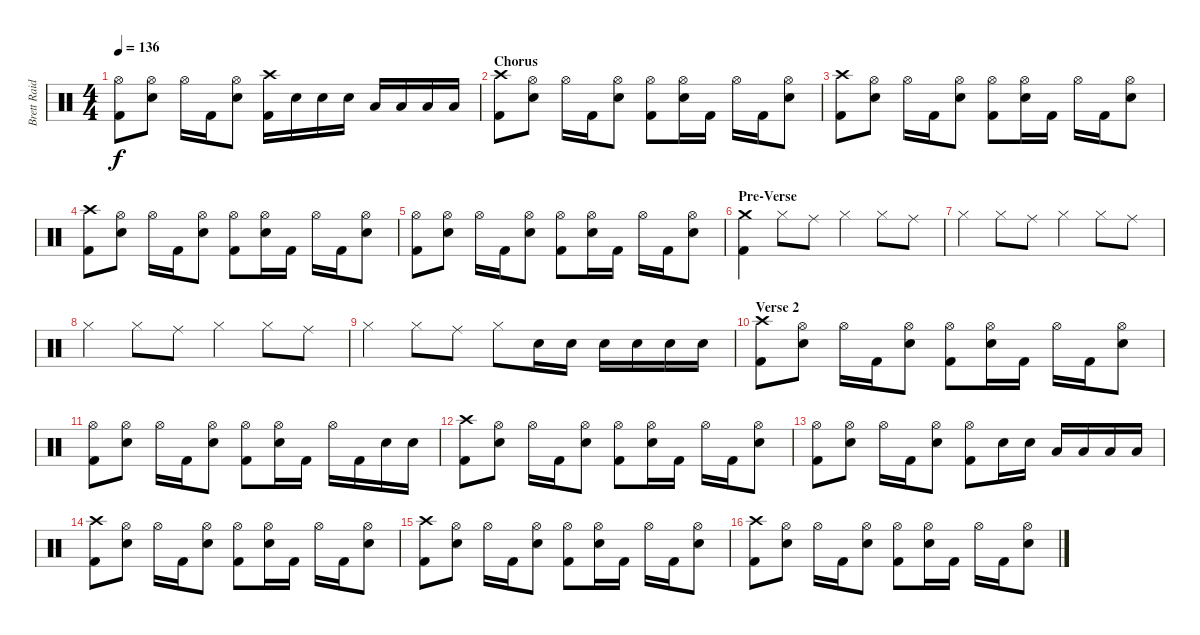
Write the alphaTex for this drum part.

\track ("Brett Raid (Drums)" "Brett Raid") {instrument percussion}
\staff {score}
\articulation defaults
\ts (4 4)
\tempo 136
\clef neutral
\ks c
("Hi-Hat (open)" "Kick (hit) 2").8{dy f} ("Hi-Hat (open)" "Electric Snare (hit)").8 "Hi-Hat (open)".16 "Kick (hit) 2".16 ("Hi-Hat (open)" "Electric Snare (hit)").8 ("Crash high (hit)" "Kick (hit) 2").16 "Electric Snare (hit)".16 "Electric Snare (hit)".16 "Electric Snare (hit)".16 "Low Tom (hit)".16 "Low Tom (hit)".16 "Low Floor Tom (hit)".16 "Low Floor Tom (hit)".16 |
\section ("" "Chorus")
("Crash high (hit)" "Kick (hit) 2").8 ("Hi-Hat (open)" "Electric Snare (hit)").8 "Hi-Hat (open)".16 "Kick (hit) 2".16 ("Hi-Hat (open)" "Electric Snare (hit)").8 ("Hi-Hat (open)" "Kick (hit) 2").8 ("Hi-Hat (open)" "Electric Snare (hit)").16 "Kick (hit) 2".16 "Hi-Hat (open)".16 "Kick (hit) 2".16 ("Hi-Hat (open)" "Electric Snare (hit)").8 |
("Crash high (hit)" "Kick (hit) 2").8 ("Hi-Hat (open)" "Electric Snare (hit)").8 "Hi-Hat (open)".16 "Kick (hit) 2".16 ("Hi-Hat (open)" "Electric Snare (hit)").8 ("Hi-Hat (open)" "Kick (hit) 2").8 ("Hi-Hat (open)" "Electric Snare (hit)").16 "Kick (hit) 2".16 "Hi-Hat (open)".16 "Kick (hit) 2".16 ("Hi-Hat (open)" "Electric Snare (hit)").8 |
("Crash high (hit)" "Kick (hit) 2").8 ("Hi-Hat (open)" "Electric Snare (hit)").8 "Hi-Hat (open)".16 "Kick (hit) 2".16 ("Hi-Hat (open)" "Electric Snare (hit)").8 ("Hi-Hat (open)" "Kick (hit) 2").8 ("Hi-Hat (open)" "Electric Snare (hit)").16 "Kick (hit) 2".16 "Hi-Hat (open)".16 "Kick (hit) 2".16 ("Hi-Hat (open)" "Electric Snare (hit)").8 |
("Hi-Hat (open)" "Kick (hit) 2").8 ("Hi-Hat (open)" "Electric Snare (hit)").8 "Hi-Hat (open)".16 "Kick (hit) 2".16 ("Hi-Hat (open)" "Electric Snare (hit)").8 ("Hi-Hat (open)" "Kick (hit) 2").8 ("Hi-Hat (open)" "Electric Snare (hit)").16 "Kick (hit) 2".16 "Hi-Hat (open)".16 "Kick (hit) 2".16 ("Hi-Hat (open)" "Electric Snare (hit)").8 |
\section ("" "Pre-Verse")
("Crash medium (hit)" "Kick (hit) 2").4 "Hi-Hat (closed)".8 "Ride (middle)".8 "Hi-Hat (closed)".4 "Hi-Hat (closed)".8 "Ride (middle)".8 |
"Hi-Hat (closed)".4 "Hi-Hat (closed)".8 "Ride (middle)".8 "Hi-Hat (closed)".4 "Hi-Hat (closed)".8 "Ride (middle)".8 |
"Hi-Hat (closed)".4 "Hi-Hat (closed)".8 "Ride (middle)".8 "Hi-Hat (closed)".4 "Hi-Hat (closed)".8 "Ride (middle)".8 |
"Hi-Hat (closed)".4 "Hi-Hat (closed)".8 "Ride (middle)".8 "Hi-Hat (closed)".8 "Electric Snare (hit)".16 "Electric Snare (hit)".16 "Electric Snare (hit)".16 "Electric Snare (hit)".16 "Electric Snare (hit)".16 "Electric Snare (hit)".16 |
\section ("" "Verse 2")
("Crash high (hit)" "Kick (hit) 2").8 ("Hi-Hat (open)" "Electric Snare (hit)").8 "Hi-Hat (open)".16 "Kick (hit) 2".16 ("Hi-Hat (open)" "Electric Snare (hit)").8 ("Hi-Hat (open)" "Kick (hit) 2").8 ("Hi-Hat (open)" "Electric Snare (hit)").16 "Kick (hit) 2".16 "Hi-Hat (open)".16 "Kick (hit) 2".16 ("Hi-Hat (open)" "Electric Snare (hit)").8 |
("Hi-Hat (open)" "Kick (hit) 2").8 ("Hi-Hat (open)" "Electric Snare (hit)").8 "Hi-Hat (open)".16 "Kick (hit) 2".16 ("Hi-Hat (open)" "Electric Snare (hit)").8 ("Hi-Hat (open)" "Kick (hit) 2").8 ("Hi-Hat (open)" "Electric Snare (hit)").16 "Kick (hit) 2".16 "Hi-Hat (open)".16 "Kick (hit) 2".16 "Electric Snare (hit)".16 "Electric Snare (hit)".16 |
("Crash high (hit)" "Kick (hit) 2").8 ("Hi-Hat (open)" "Electric Snare (hit)").8 "Hi-Hat (open)".16 "Kick (hit) 2".16 ("Hi-Hat (open)" "Electric Snare (hit)").8 ("Hi-Hat (open)" "Kick (hit) 2").8 ("Hi-Hat (open)" "Electric Snare (hit)").16 "Kick (hit) 2".16 "Hi-Hat (open)".16 "Kick (hit) 2".16 ("Hi-Hat (open)" "Electric Snare (hit)").8 |
("Hi-Hat (open)" "Kick (hit) 2").8 ("Hi-Hat (open)" "Electric Snare (hit)").8 "Hi-Hat (open)".16 "Kick (hit) 2".16 ("Hi-Hat (open)" "Electric Snare (hit)").8 ("Hi-Hat (open)" "Kick (hit) 2").8 "Electric Snare (hit)".16 "Electric Snare (hit)".16 "Low Tom (hit)".16 "Low Tom (hit)".16 "Low Floor Tom (hit)".16 "Low Floor Tom (hit)".16 |
("Crash high (hit)" "Kick (hit) 2").8 ("Hi-Hat (open)" "Electric Snare (hit)").8 "Hi-Hat (open)".16 "Kick (hit) 2".16 ("Hi-Hat (open)" "Electric Snare (hit)").8 ("Hi-Hat (open)" "Kick (hit) 2").8 ("Hi-Hat (open)" "Electric Snare (hit)").16 "Kick (hit) 2".16 "Hi-Hat (open)".16 "Kick (hit) 2".16 ("Hi-Hat (open)" "Electric Snare (hit)").8 |
("Crash high (hit)" "Kick (hit) 2").8 ("Hi-Hat (open)" "Electric Snare (hit)").8 "Hi-Hat (open)".16 "Kick (hit) 2".16 ("Hi-Hat (open)" "Electric Snare (hit)").8 ("Hi-Hat (open)" "Kick (hit) 2").8 ("Hi-Hat (open)" "Electric Snare (hit)").16 "Kick (hit) 2".16 "Hi-Hat (open)".16 "Kick (hit) 2".16 ("Hi-Hat (open)" "Electric Snare (hit)").8 |
("Crash high (hit)" "Kick (hit) 2").8 ("Hi-Hat (open)" "Electric Snare (hit)").8 "Hi-Hat (open)".16 "Kick (hit) 2".16 ("Hi-Hat (open)" "Electric Snare (hit)").8 ("Hi-Hat (open)" "Kick (hit) 2").8 ("Hi-Hat (open)" "Electric Snare (hit)").16 "Kick (hit) 2".16 "Hi-Hat (open)".16 "Kick (hit) 2".16 ("Hi-Hat (open)" "Electric Snare (hit)").8
